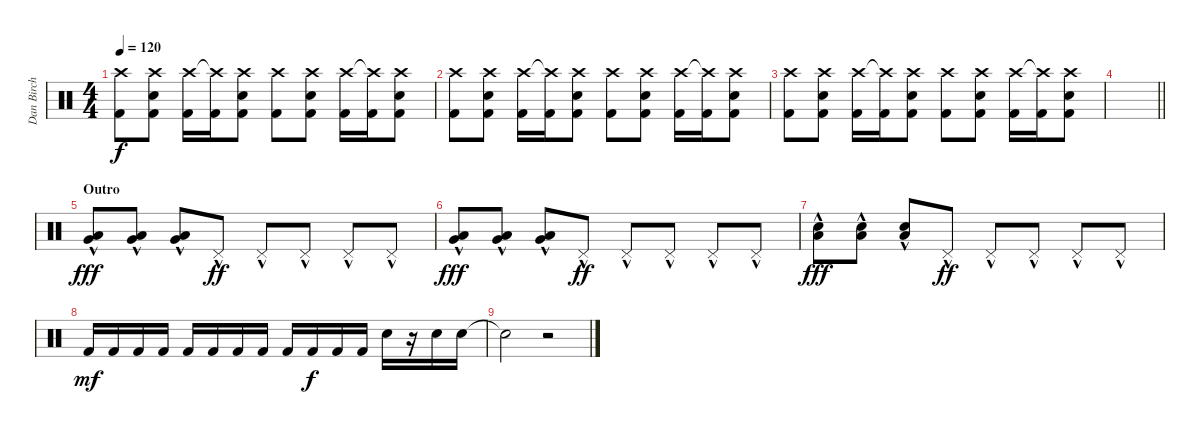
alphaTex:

\track ("Dan Birch" "Dan Birch") {instrument percussion}
\staff {score}
\articulation defaults
\ts (4 4)
\tempo 120
\clef neutral
\ks c
("Crash high (hit)" "Kick (hit) 2").8{dy f} ("Crash high (hit)" "Snare (hit) 2" "Kick (hit) 2").8 ("Crash high (hit)" "Kick (hit) 2").16 ("Crash high (hit)"{t} "Kick (hit) 2").16 ("Crash high (hit)" "Snare (hit) 2" "Kick (hit) 2").8 ("Crash high (hit)" "Kick (hit) 2").8 ("Crash high (hit)" "Snare (hit) 2" "Kick (hit) 2").8 ("Crash high (hit)" "Kick (hit) 2").16 ("Crash high (hit)"{t} "Kick (hit) 2").16 ("Crash high (hit)" "Snare (hit) 2" "Kick (hit) 2").8 |
("Crash high (hit)" "Kick (hit) 2").8 ("Crash high (hit)" "Snare (hit) 2" "Kick (hit) 2").8 ("Crash high (hit)" "Kick (hit) 2").16 ("Crash high (hit)"{t} "Kick (hit) 2").16 ("Crash high (hit)" "Snare (hit) 2" "Kick (hit) 2").8 ("Crash high (hit)" "Kick (hit) 2").8 ("Crash high (hit)" "Snare (hit) 2" "Kick (hit) 2").8 ("Crash high (hit)" "Kick (hit) 2").16 ("Crash high (hit)"{t} "Kick (hit) 2").16 ("Crash high (hit)" "Snare (hit) 2" "Kick (hit) 2").8 |
("Crash high (hit)" "Kick (hit) 2").8 ("Crash high (hit)" "Snare (hit) 2" "Kick (hit) 2").8 ("Crash high (hit)" "Kick (hit) 2").16 ("Crash high (hit)"{t} "Kick (hit) 2").16 ("Crash high (hit)" "Snare (hit) 2" "Kick (hit) 2").8 ("Crash high (hit)" "Kick (hit) 2").8 ("Crash high (hit)" "Snare (hit) 2" "Kick (hit) 2").8 ("Crash high (hit)" "Kick (hit) 2").16 ("Crash high (hit)"{t} "Kick (hit) 2").16 ("Crash high (hit)" "Snare (hit) 2" "Kick (hit) 2").8 |
\barLineRight lightlight
|
\section ("" "Outro")
("Very Low Tom (hit)"{hac} "Low Floor Tom (hit)"{hac}).8{dy fff} ("Very Low Tom (hit)"{hac} "Low Floor Tom (hit)"{hac}).8 ("Very Low Tom (hit)"{hac} "Low Floor Tom (hit)"{hac}).8 "Pedal Hi-Hat (hit)"{hac}.8{dy ff} "Pedal Hi-Hat (hit)"{hac}.8 "Pedal Hi-Hat (hit)"{hac}.8 "Pedal Hi-Hat (hit)"{hac}.8 "Pedal Hi-Hat (hit)"{hac}.8 |
("Low Tom (hit)"{hac} "Very Low Tom (hit)"{hac}).8{dy fff} ("Low Tom (hit)"{hac} "Very Low Tom (hit)"{hac}).8 ("Low Tom (hit)"{hac} "Very Low Tom (hit)"{hac}).8 "Pedal Hi-Hat (hit)"{hac}.8{dy ff} "Pedal Hi-Hat (hit)"{hac}.8 "Pedal Hi-Hat (hit)"{hac}.8 "Pedal Hi-Hat (hit)"{hac}.8 "Pedal Hi-Hat (hit)"{hac}.8 |
("Snare (hit) 2"{hac} "Low Tom (hit)"{hac}).8{dy fff} ("Snare (hit) 2"{hac} "Low Tom (hit)"{hac}).8 ("Snare (hit) 2"{hac} "Low Tom (hit)"{hac}).8 "Pedal Hi-Hat (hit)"{hac}.8{dy ff} "Pedal Hi-Hat (hit)"{hac}.8 "Pedal Hi-Hat (hit)"{hac}.8 "Pedal Hi-Hat (hit)"{hac}.8 "Pedal Hi-Hat (hit)"{hac}.8 |
"Kick (hit) 2".16{dy mf} "Kick (hit) 2".16 "Kick (hit) 2".16 "Kick (hit) 2".16 "Kick (hit) 2".16 "Kick (hit) 2".16 "Kick (hit) 2".16 "Kick (hit) 2".16 "Kick (hit) 2".16 "Kick (hit) 2".16{dy f} "Kick (hit) 2".16 "Kick (hit) 2".16 "Snare (hit) 2".16 r.16 "Snare (hit) 2".16 "Snare (hit) 2".16 |
"Snare (hit) 2"{t}.2 r.2
